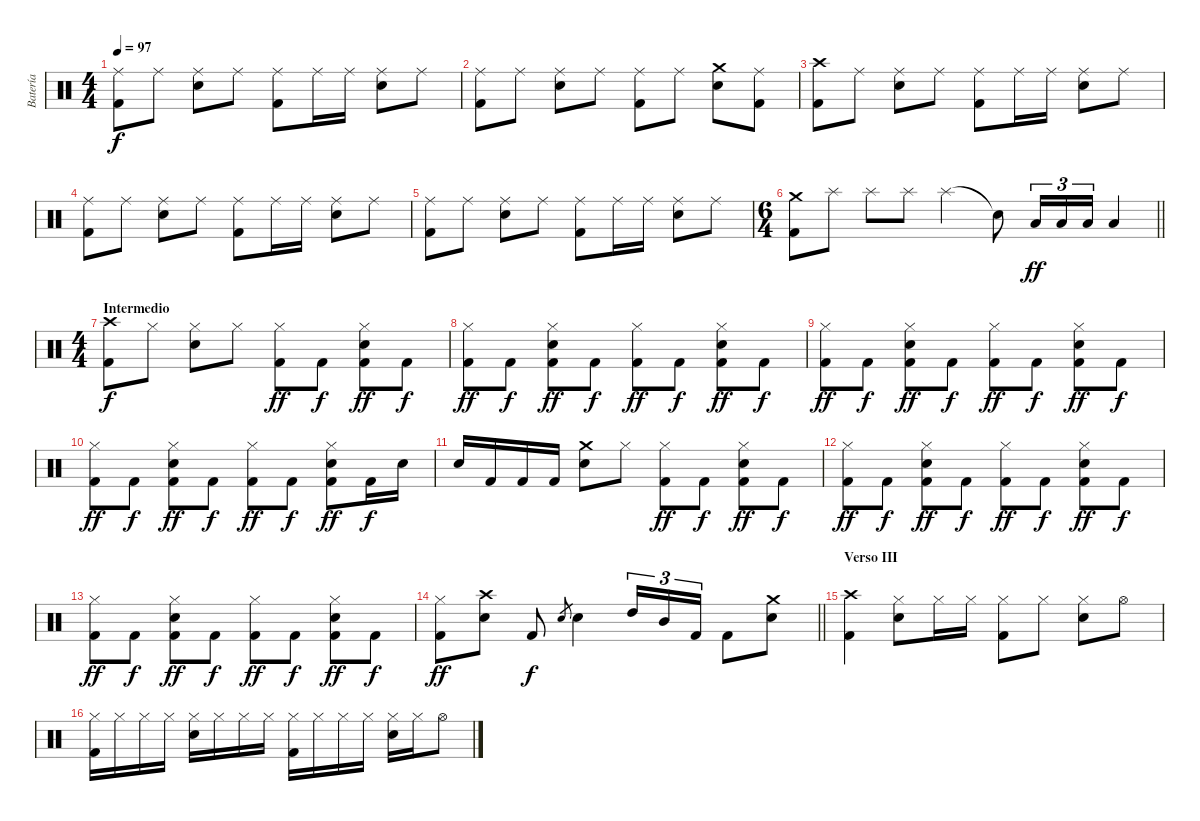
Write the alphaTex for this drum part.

\track ("Batería" "Batería") {instrument percussion}
\staff {score}
\articulation defaults
\ts (4 4)
\tempo 97
\clef neutral
\ks c
("Ride (middle)" "Kick (hit) 2").8{dy f} "Ride (middle)".8 ("Ride (middle)" "Snare (hit) 2").8 "Ride (middle)".8 ("Ride (middle)" "Kick (hit) 2").8 "Ride (middle)".16 "Ride (middle)".16 ("Ride (middle)" "Snare (hit) 2").8 "Ride (middle)".8 |
("Ride (middle)" "Kick (hit) 2").8 "Ride (middle)".8 ("Ride (middle)" "Snare (hit) 2").8 "Ride (middle)".8 ("Ride (middle)" "Kick (hit) 2").8 "Ride (middle)".8 ("Crash medium (hit)" "Snare (hit) 2").8 ("Ride (middle)" "Kick (hit) 2").8 |
("Crash high (hit)" "Kick (hit) 2").8 "Ride (middle)".8 ("Ride (middle)" "Snare (hit) 2").8 "Ride (middle)".8 ("Ride (middle)" "Kick (hit) 2").8 "Ride (middle)".16 "Ride (middle)".16 ("Ride (middle)" "Snare (hit) 2").8 "Ride (middle)".8 |
("Ride (middle)" "Kick (hit) 2").8 "Ride (middle)".8 ("Ride (middle)" "Snare (hit) 2").8 "Ride (middle)".8 ("Ride (middle)" "Kick (hit) 2").8 "Ride (middle)".16 "Ride (middle)".16 ("Ride (middle)" "Snare (hit) 2").8 "Ride (middle)".8 |
("Ride (middle)" "Kick (hit) 2").8 "Ride (middle)".8 ("Ride (middle)" "Snare (hit) 2").8 "Ride (middle)".8 ("Ride (middle)" "Kick (hit) 2").8 "Ride (middle)".16 "Ride (middle)".16 ("Ride (middle)" "Snare (hit) 2").8 "Ride (middle)".8 |
\ts (6 4)
\barLineRight lightlight
("Crash medium (hit)" "Kick (hit) 2").8 "Splash (hit)".8 "Splash (hit)".8 "Splash (hit)".8 "Splash (hit)".2 "Snare (hit)"{t}.8 "Low Tom (hit)".16{tu (3 2) dy ff} "Low Tom (hit)".16{tu (3 2)} "Low Tom (hit)".16{tu (3 2)} "Low Tom (hit)".4 |
\ts (4 4)
\section ("" "Intermedio")
("Crash high (hit)" "Kick (hit) 2").8{dy f} "Hi-Hat (closed)".8 ("Hi-Hat (closed)" "Snare (hit) 2").8 "Hi-Hat (closed)".8 ("Hi-Hat (closed)" "Kick (hit) 2").8{dy ff} "Kick (hit) 2".8{dy f} ("Hi-Hat (closed)" "Snare (hit) 2" "Kick (hit) 2").8{dy ff} "Kick (hit) 2".8{dy f} |
("Hi-Hat (closed)" "Kick (hit) 2").8{dy ff} "Kick (hit) 2".8{dy f} ("Hi-Hat (closed)" "Snare (hit) 2" "Kick (hit) 2").8{dy ff} "Kick (hit) 2".8{dy f} ("Hi-Hat (closed)" "Kick (hit) 2").8{dy ff} "Kick (hit) 2".8{dy f} ("Hi-Hat (closed)" "Snare (hit) 2" "Kick (hit) 2").8{dy ff} "Kick (hit) 2".8{dy f} |
("Hi-Hat (closed)" "Kick (hit) 2").8{dy ff} "Kick (hit) 2".8{dy f} ("Hi-Hat (closed)" "Snare (hit) 2" "Kick (hit) 2").8{dy ff} "Kick (hit) 2".8{dy f} ("Hi-Hat (closed)" "Kick (hit) 2").8{dy ff} "Kick (hit) 2".8{dy f} ("Hi-Hat (closed)" "Snare (hit) 2" "Kick (hit) 2").8{dy ff} "Kick (hit) 2".8{dy f} |
("Hi-Hat (closed)" "Kick (hit) 2").8{dy ff} "Kick (hit) 2".8{dy f} ("Hi-Hat (closed)" "Snare (hit) 2" "Kick (hit) 2").8{dy ff} "Kick (hit) 2".8{dy f} ("Hi-Hat (closed)" "Kick (hit) 2").8{dy ff} "Kick (hit) 2".8{dy f} ("Hi-Hat (closed)" "Snare (hit) 2" "Kick (hit) 2").8{dy ff} "Kick (hit) 2".16{dy f} "Snare (hit) 2".16 |
"Snare (hit) 2".16 "Kick (hit) 2".16 "Kick (hit) 2".16 "Kick (hit) 2".16 ("Crash medium (hit)" "Snare (hit) 2").8 "Hi-Hat (closed)".8 ("Hi-Hat (closed)" "Kick (hit) 2").8{dy ff} "Kick (hit) 2".8{dy f} ("Hi-Hat (closed)" "Snare (hit) 2" "Kick (hit) 2").8{dy ff} "Kick (hit) 2".8{dy f} |
("Hi-Hat (closed)" "Kick (hit) 2").8{dy ff} "Kick (hit) 2".8{dy f} ("Hi-Hat (closed)" "Snare (hit) 2" "Kick (hit) 2").8{dy ff} "Kick (hit) 2".8{dy f} ("Hi-Hat (closed)" "Kick (hit) 2").8{dy ff} "Kick (hit) 2".8{dy f} ("Hi-Hat (closed)" "Snare (hit) 2" "Kick (hit) 2").8{dy ff} "Kick (hit) 2".8{dy f} |
("Hi-Hat (closed)" "Kick (hit) 2").8{dy ff} "Kick (hit) 2".8{dy f} ("Hi-Hat (closed)" "Snare (hit) 2" "Kick (hit) 2").8{dy ff} "Kick (hit) 2".8{dy f} ("Hi-Hat (closed)" "Kick (hit) 2").8{dy ff} "Kick (hit) 2".8{dy f} ("Hi-Hat (closed)" "Snare (hit) 2" "Kick (hit) 2").8{dy ff} "Kick (hit) 2".8{dy f} |
\barLineRight lightlight
("Hi-Hat (closed)" "Kick (hit) 2").8{dy ff} ("Crash high (hit)" "Snare (hit) 2").8 "Kick (hit) 2".8{dy f} "Snare (hit) 2".8{gr} "Snare (hit) 2".4 "High Tom (hit)".16{tu (3 2)} "Mid Tom (hit)".16{tu (3 2)} "Kick (hit) 2".16{tu (3 2)} "Kick (hit) 2".8 ("Crash medium (hit)" "Snare (hit) 2").8 |
\section ("" "Verso III")
("Crash high (hit)" "Kick (hit) 2").4 ("Hi-Hat (closed)" "Snare (hit) 2").8 "Hi-Hat (closed)".16 "Hi-Hat (closed)".16 ("Hi-Hat (closed)" "Kick (hit) 2").8 "Hi-Hat (closed)".8 ("Hi-Hat (closed)" "Snare (hit) 2").8 "Hi-Hat (open)".8 |
("Hi-Hat (closed)" "Kick (hit) 2").16 "Hi-Hat (closed)".16 "Hi-Hat (closed)".16 "Hi-Hat (closed)".16 ("Hi-Hat (closed)" "Snare (hit) 2").16 "Hi-Hat (closed)".16 "Hi-Hat (closed)".16 "Hi-Hat (closed)".16 ("Hi-Hat (closed)" "Kick (hit) 2").16 "Hi-Hat (closed)".16 "Hi-Hat (closed)".16 "Hi-Hat (closed)".16 ("Hi-Hat (closed)" "Snare (hit) 2").16 "Hi-Hat (closed)".16 "Hi-Hat (open)".8
